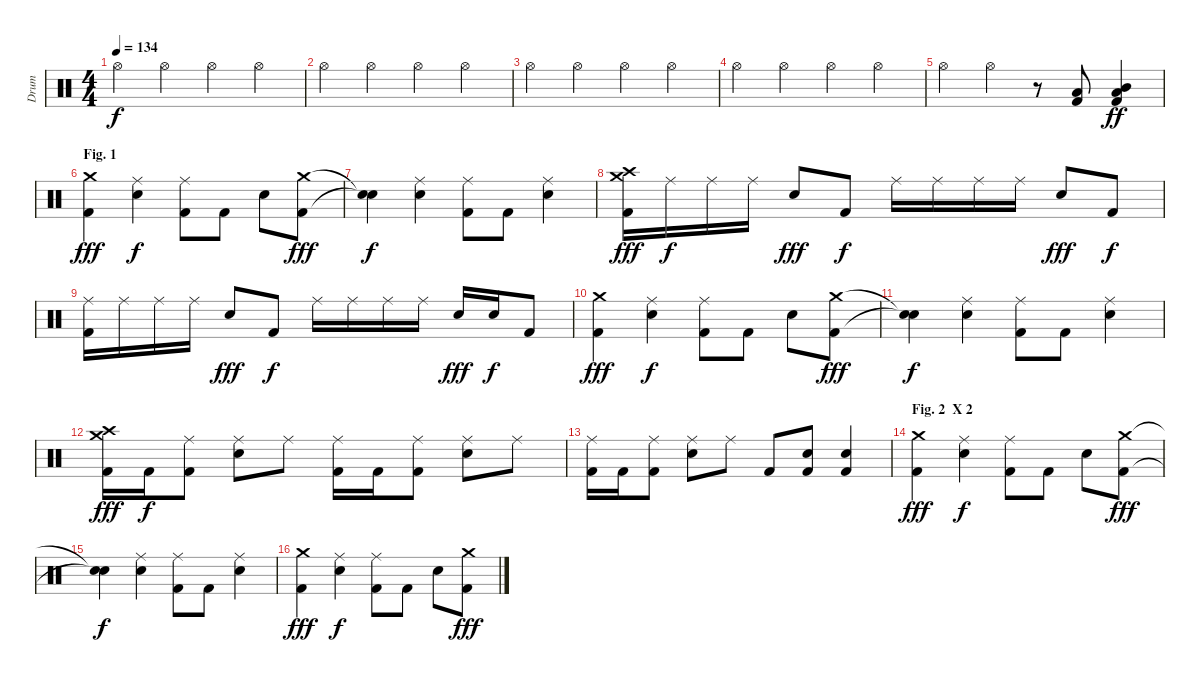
\track ("Drum" "Drum") {instrument percussion}
\staff {score}
\articulation defaults
\ts (4 4)
\tempo 134
\clef neutral
\ks c "Hi-Hat (open)".4{dy f} "Hi-Hat (open)".4 "Hi-Hat (open)".4 "Hi-Hat (open)".4
|
"Hi-Hat (open)".4 "Hi-Hat (open)".4 "Hi-Hat (open)".4 "Hi-Hat (open)".4 |
"Hi-Hat (open)".4 "Hi-Hat (open)".4 "Hi-Hat (open)".4 "Hi-Hat (open)".4 |
"Hi-Hat (open)".4 "Hi-Hat (open)".4 "Hi-Hat (open)".4 "Hi-Hat (open)".4 |
"Hi-Hat (open)".4 "Hi-Hat (open)".4 r.8 ("Low Tom (hit)" "Kick (hit) 2").8 ("Mid Tom (hit)" "Low Tom (hit)" "Kick (hit) 2").4{dy ff} |
\section ("" "Fig. 1")
("Crash medium (hit)" "Kick (hit) 2").4{dy fff} ("Ride (middle)" "Snare (hit) 2").4{dy f} ("Ride (middle)" "Kick (hit) 2").8 "Kick (hit) 2".8 "Snare (hit) 2".8 ("Crash medium (hit)" "Kick (hit) 2").8{dy fff} |
("Snare (hit)"{t} "Snare (hit)"{t}).4{dy f} ("Ride (middle)" "Snare (hit) 2").4 ("Ride (middle)" "Kick (hit) 2").8 "Kick (hit) 2".8 ("Ride (middle)" "Snare (hit) 2").4 |
("Crash medium (hit)" "Crash high (hit)" "Kick (hit) 2").16{dy fff} "Ride (middle)".16{dy f} "Ride (middle)".16 "Ride (middle)".16 "Snare (hit) 2".8{dy fff} "Kick (hit) 2".8{dy f} "Ride (middle)".16 "Ride (middle)".16 "Ride (middle)".16 "Ride (middle)".16 "Snare (hit) 2".8{dy fff} "Kick (hit) 2".8{dy f} |
("Ride (middle)" "Kick (hit) 2").16 "Ride (middle)".16 "Ride (middle)".16 "Ride (middle)".16 "Snare (hit) 2".8{dy fff} "Kick (hit) 2".8{dy f} "Ride (middle)".16 "Ride (middle)".16 "Ride (middle)".16 "Ride (middle)".16 "Snare (hit) 2".16{dy fff} "Snare (hit) 2".16{dy f} "Kick (hit) 2".8 |
("Crash medium (hit)" "Kick (hit) 2").4{dy fff} ("Ride (middle)" "Snare (hit) 2").4{dy f} ("Ride (middle)" "Kick (hit) 2").8 "Kick (hit) 2".8 "Snare (hit) 2".8 ("Crash medium (hit)" "Kick (hit) 2").8{dy fff} |
("Snare (hit)"{t} "Snare (hit)"{t}).4{dy f} ("Ride (middle)" "Snare (hit) 2").4 ("Ride (middle)" "Kick (hit) 2").8 "Kick (hit) 2".8 ("Ride (middle)" "Snare (hit) 2").4 |
("Crash medium (hit)" "Crash high (hit)" "Kick (hit) 2").16{dy fff} "Kick (hit) 2".16{dy f} ("Ride (middle)" "Kick (hit) 2").8 ("Ride (middle)" "Snare (hit) 2").8 "Ride (middle)".8 ("Ride (middle)" "Kick (hit) 2").16 "Kick (hit) 2".16 ("Ride (middle)" "Kick (hit) 2").8 ("Ride (middle)" "Snare (hit) 2").8 "Ride (middle)".8 |
("Ride (middle)" "Kick (hit) 2").16 "Kick (hit) 2".16 ("Ride (middle)" "Kick (hit) 2").8 ("Ride (middle)" "Snare (hit) 2").8 "Ride (middle)".8 "Kick (hit) 2".8 ("Snare (hit) 2" "Kick (hit) 2").8 ("Snare (hit) 2" "Kick (hit) 2").4 |
\section ("" "Fig. 2  X 2")
("Crash medium (hit)" "Kick (hit) 2").4{dy fff} ("Ride (middle)" "Snare (hit) 2").4{dy f} ("Ride (middle)" "Kick (hit) 2").8 "Kick (hit) 2".8 "Snare (hit) 2".8 ("Crash medium (hit)" "Kick (hit) 2").8{dy fff} |
("Snare (hit)"{t} "Snare (hit)"{t}).4{dy f} ("Ride (middle)" "Snare (hit) 2").4 ("Ride (middle)" "Kick (hit) 2").8 "Kick (hit) 2".8 ("Ride (middle)" "Snare (hit) 2").4 |
("Crash medium (hit)" "Kick (hit) 2").4{dy fff} ("Ride (middle)" "Snare (hit) 2").4{dy f} ("Ride (middle)" "Kick (hit) 2").8 "Kick (hit) 2".8 "Snare (hit) 2".8 ("Crash medium (hit)" "Kick (hit) 2").8{dy fff}
